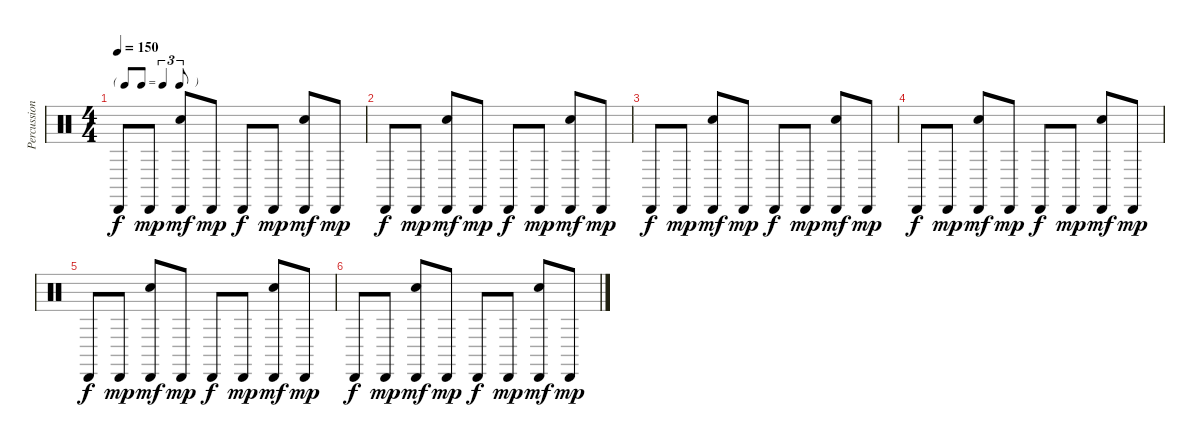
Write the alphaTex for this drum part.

\track ("Percussion" "Percussion") {instrument percussion}
\staff {score}
\articulation defaults
\ts (4 4)
\tf triplet8th
\tempo 150
\clef neutral
\ks c "Cabasa (hit)".8{dy f} "Cabasa (hit)".8{dy mp}
("Cabasa (hit)" "Hand Clap (hit)").8{dy mf} "Cabasa (hit)".8{dy mp} "Cabasa (hit)".8{dy f} "Cabasa (hit)".8{dy mp} ("Cabasa (hit)" "Hand Clap (hit)").8{dy mf} "Cabasa (hit)".8{dy mp} |
"Cabasa (hit)".8{dy f} "Cabasa (hit)".8{dy mp} ("Cabasa (hit)" "Hand Clap (hit)").8{dy mf} "Cabasa (hit)".8{dy mp} "Cabasa (hit)".8{dy f} "Cabasa (hit)".8{dy mp} ("Cabasa (hit)" "Hand Clap (hit)").8{dy mf} "Cabasa (hit)".8{dy mp} |
"Cabasa (hit)".8{dy f} "Cabasa (hit)".8{dy mp} ("Cabasa (hit)" "Hand Clap (hit)").8{dy mf} "Cabasa (hit)".8{dy mp} "Cabasa (hit)".8{dy f} "Cabasa (hit)".8{dy mp} ("Cabasa (hit)" "Hand Clap (hit)").8{dy mf} "Cabasa (hit)".8{dy mp} |
"Cabasa (hit)".8{dy f} "Cabasa (hit)".8{dy mp} ("Cabasa (hit)" "Hand Clap (hit)").8{dy mf} "Cabasa (hit)".8{dy mp} "Cabasa (hit)".8{dy f} "Cabasa (hit)".8{dy mp} ("Cabasa (hit)" "Hand Clap (hit)").8{dy mf} "Cabasa (hit)".8{dy mp} |
"Cabasa (hit)".8{dy f volume 0} "Cabasa (hit)".8{dy mp} ("Cabasa (hit)" "Hand Clap (hit)").8{dy mf} "Cabasa (hit)".8{dy mp} "Cabasa (hit)".8{dy f} "Cabasa (hit)".8{dy mp} ("Cabasa (hit)" "Hand Clap (hit)").8{dy mf} "Cabasa (hit)".8{dy mp} |
"Cabasa (hit)".8{dy f} "Cabasa (hit)".8{dy mp} ("Cabasa (hit)" "Hand Clap (hit)").8{dy mf} "Cabasa (hit)".8{dy mp} "Cabasa (hit)".8{dy f} "Cabasa (hit)".8{dy mp} ("Cabasa (hit)" "Hand Clap (hit)").8{dy mf} "Cabasa (hit)".8{dy mp}
